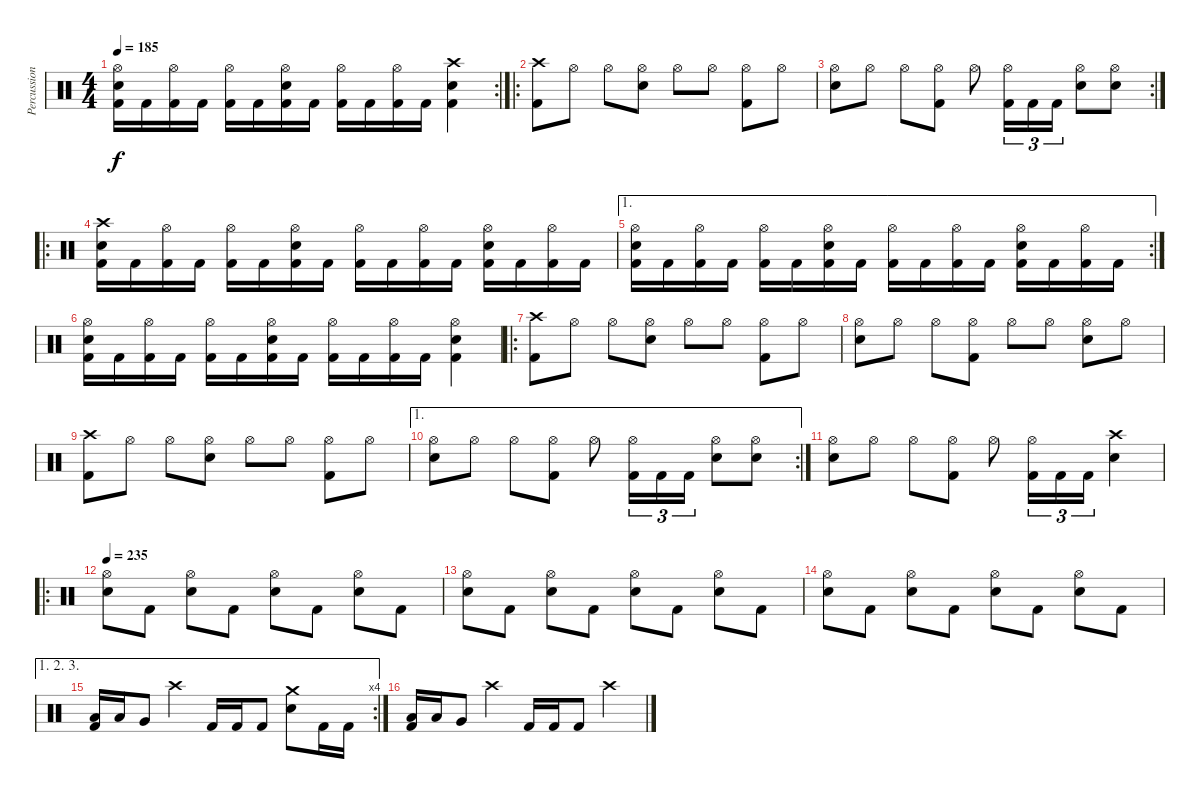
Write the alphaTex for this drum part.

\track ("Percussion" "Percussion") {instrument percussion}
\staff {score}
\articulation defaults
\rc 2
\ts (4 4)
\tempo 185
\clef neutral
\ks c
("Hi-Hat (open)" "Electric Snare (hit)" "Kick (hit) 2").16{dy f} "Kick (hit) 2".16 ("Hi-Hat (open)" "Kick (hit) 2").16 "Kick (hit) 2".16 ("Hi-Hat (open)" "Kick (hit) 2").16 "Kick (hit) 2".16 ("Hi-Hat (open)" "Electric Snare (hit)" "Kick (hit) 2").16 "Kick (hit) 2".16 ("Hi-Hat (open)" "Kick (hit) 2").16 "Kick (hit) 2".16 ("Hi-Hat (open)" "Kick (hit) 2").16 "Kick (hit) 2".16 ("Crash high (hit)" "Electric Snare (hit)" "Kick (hit) 2").4 |
\ro
("Crash high (hit)" "Kick (hit) 2").8 "Hi-Hat (open)".8 "Hi-Hat (open)".8 ("Hi-Hat (open)" "Electric Snare (hit)").8 "Hi-Hat (open)".8 "Hi-Hat (open)".8 ("Hi-Hat (open)" "Kick (hit) 2").8 "Hi-Hat (open)".8 |
\rc 2
("Hi-Hat (open)" "Electric Snare (hit)").8 "Hi-Hat (open)".8 "Hi-Hat (open)".8 ("Hi-Hat (open)" "Kick (hit) 2").8 "Hi-Hat (open)".8 ("Hi-Hat (open)" "Kick (hit) 2").16{tu (3 2)} "Kick (hit) 2".16{tu (3 2)} "Kick (hit) 2".16{tu (3 2)} ("Hi-Hat (open)" "Electric Snare (hit)").8 ("Hi-Hat (open)" "Electric Snare (hit)").8 |
\ro
("Crash high (hit)" "Electric Snare (hit)" "Kick (hit) 2").16 "Kick (hit) 2".16 ("Hi-Hat (open)" "Kick (hit) 2").16 "Kick (hit) 2".16 ("Hi-Hat (open)" "Kick (hit) 2").16 "Kick (hit) 2".16 ("Hi-Hat (open)" "Electric Snare (hit)" "Kick (hit) 2").16 "Kick (hit) 2".16 ("Hi-Hat (open)" "Kick (hit) 2").16 "Kick (hit) 2".16 ("Hi-Hat (open)" "Kick (hit) 2").16 "Kick (hit) 2".16 ("Hi-Hat (open)" "Electric Snare (hit)" "Kick (hit) 2").16 "Kick (hit) 2".16 ("Hi-Hat (open)" "Kick (hit) 2").16 "Kick (hit) 2".16 |
\ae 1
\rc 2
("Hi-Hat (open)" "Electric Snare (hit)" "Kick (hit) 2").16 "Kick (hit) 2".16 ("Hi-Hat (open)" "Kick (hit) 2").16 "Kick (hit) 2".16 ("Hi-Hat (open)" "Kick (hit) 2").16 "Kick (hit) 2".16 ("Hi-Hat (open)" "Electric Snare (hit)" "Kick (hit) 2").16 "Kick (hit) 2".16 ("Hi-Hat (open)" "Kick (hit) 2").16 "Kick (hit) 2".16 ("Hi-Hat (open)" "Kick (hit) 2").16 "Kick (hit) 2".16 ("Hi-Hat (open)" "Electric Snare (hit)" "Kick (hit) 2").16 "Kick (hit) 2".16 ("Hi-Hat (open)" "Kick (hit) 2").16 "Kick (hit) 2".16 |
("Hi-Hat (open)" "Electric Snare (hit)" "Kick (hit) 2").16 "Kick (hit) 2".16 ("Hi-Hat (open)" "Kick (hit) 2").16 "Kick (hit) 2".16 ("Hi-Hat (open)" "Kick (hit) 2").16 "Kick (hit) 2".16 ("Hi-Hat (open)" "Electric Snare (hit)" "Kick (hit) 2").16 "Kick (hit) 2".16 ("Hi-Hat (open)" "Kick (hit) 2").16 "Kick (hit) 2".16 ("Hi-Hat (open)" "Kick (hit) 2").16 "Kick (hit) 2".16 ("Hi-Hat (open)" "Electric Snare (hit)" "Kick (hit) 2").4 |
\ro
("Crash high (hit)" "Kick (hit) 2").8 "Hi-Hat (open)".8 "Hi-Hat (open)".8 ("Hi-Hat (open)" "Electric Snare (hit)").8 "Hi-Hat (open)".8 "Hi-Hat (open)".8 ("Hi-Hat (open)" "Kick (hit) 2").8 "Hi-Hat (open)".8 |
("Hi-Hat (open)" "Electric Snare (hit)").8 "Hi-Hat (open)".8 "Hi-Hat (open)".8 ("Hi-Hat (open)" "Kick (hit) 2").8 "Hi-Hat (open)".8 "Hi-Hat (open)".8 ("Hi-Hat (open)" "Electric Snare (hit)").8 "Hi-Hat (open)".8 |
("Crash high (hit)" "Kick (hit) 2").8 "Hi-Hat (open)".8 "Hi-Hat (open)".8 ("Hi-Hat (open)" "Electric Snare (hit)").8 "Hi-Hat (open)".8 "Hi-Hat (open)".8 ("Hi-Hat (open)" "Kick (hit) 2").8 "Hi-Hat (open)".8 |
\ae 1
\rc 2
("Hi-Hat (open)" "Electric Snare (hit)").8 "Hi-Hat (open)".8 "Hi-Hat (open)".8 ("Hi-Hat (open)" "Kick (hit) 2").8 "Hi-Hat (open)".8 ("Hi-Hat (open)" "Kick (hit) 2").16{tu (3 2)} "Kick (hit) 2".16{tu (3 2)} "Kick (hit) 2".16{tu (3 2)} ("Hi-Hat (open)" "Electric Snare (hit)").8 ("Hi-Hat (open)" "Electric Snare (hit)").8 |
("Hi-Hat (open)" "Electric Snare (hit)").8 "Hi-Hat (open)".8 "Hi-Hat (open)".8 ("Hi-Hat (open)" "Kick (hit) 2").8 "Hi-Hat (open)".8 ("Hi-Hat (open)" "Kick (hit) 2").16{tu (3 2)} "Kick (hit) 2".16{tu (3 2)} "Kick (hit) 2".16{tu (3 2)} ("Crash high (hit)" "Electric Snare (hit)").4 |
\ro
\tempo 235
("Hi-Hat (open)" "Electric Snare (hit)").8 "Kick (hit) 2".8 ("Hi-Hat (open)" "Electric Snare (hit)").8 "Kick (hit) 2".8 ("Hi-Hat (open)" "Electric Snare (hit)").8 "Kick (hit) 2".8 ("Hi-Hat (open)" "Electric Snare (hit)").8 "Kick (hit) 2".8 |
("Hi-Hat (open)" "Electric Snare (hit)").8 "Kick (hit) 2".8 ("Hi-Hat (open)" "Electric Snare (hit)").8 "Kick (hit) 2".8 ("Hi-Hat (open)" "Electric Snare (hit)").8 "Kick (hit) 2".8 ("Hi-Hat (open)" "Electric Snare (hit)").8 "Kick (hit) 2".8 |
("Hi-Hat (open)" "Electric Snare (hit)").8 "Kick (hit) 2".8 ("Hi-Hat (open)" "Electric Snare (hit)").8 "Kick (hit) 2".8 ("Hi-Hat (open)" "Electric Snare (hit)").8 "Kick (hit) 2".8 ("Hi-Hat (open)" "Electric Snare (hit)").8 "Kick (hit) 2".8 |
\ae (1 2 3)
\rc 4
("Low Tom (hit)" "Kick (hit) 2").16 "Low Tom (hit)".16 "Very Low Tom (hit)".8 "Crash high (hit)".4 "Kick (hit) 2".16 "Kick (hit) 2".16 "Kick (hit) 2".8 ("Crash medium (hit)" "Electric Snare (hit)").8 "Kick (hit) 2".16 "Kick (hit) 2".16 |
("Low Tom (hit)" "Kick (hit) 2").16 "Low Tom (hit)".16 "Very Low Tom (hit)".8 "Crash high (hit)".4 "Kick (hit) 2".16 "Kick (hit) 2".16 "Kick (hit) 2".8 "Crash high (hit)".4
